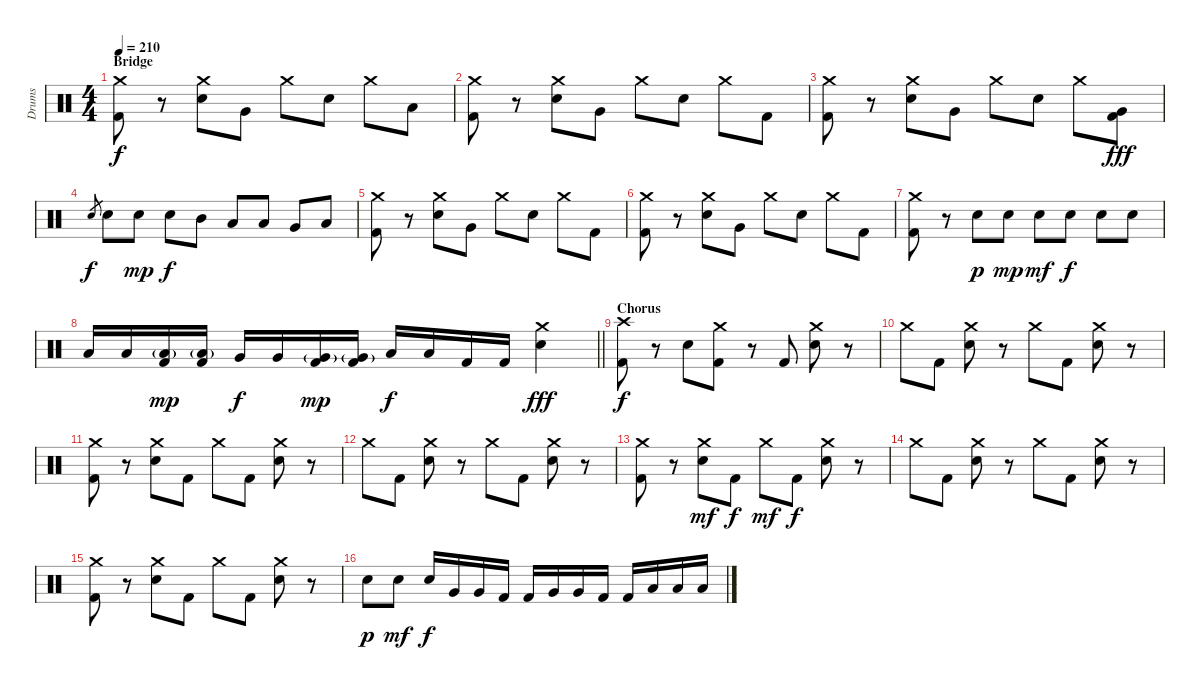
\track ("Drums" "Drums") {instrument percussion}
\staff {score}
\articulation defaults
\ts (4 4)
\section ("" "Bridge")
\tempo 210
\clef neutral
\ks c
("Crash medium (hit)" "Kick (hit) 2").8{dy f} r.8 ("Crash medium (hit)" "Electric Snare (hit)").8 "Very Low Tom (hit)".8 "Crash medium (hit)".8 "Electric Snare (hit)".8 "Crash medium (hit)".8 "Low Floor Tom (hit)".8 |
("Crash medium (hit)" "Kick (hit) 2").8 r.8 ("Crash medium (hit)" "Electric Snare (hit)").8 "Very Low Tom (hit)".8 "Crash medium (hit)".8 "Electric Snare (hit)".8 "Crash medium (hit)".8 "Kick (hit) 2".8 |
("Crash medium (hit)" "Kick (hit) 2").8 r.8 ("Crash medium (hit)" "Electric Snare (hit)").8 "Very Low Tom (hit)".8 "Crash medium (hit)".8 "Electric Snare (hit)".8 "Crash medium (hit)".8 ("Very Low Tom (hit)" "Kick (hit) 2").8{dy fff} |
"Electric Snare (hit)".8{gr dy f} "Electric Snare (hit)".8 "Electric Snare (hit)".8{dy mp} "Electric Snare (hit)".8{dy f} "Mid Tom (hit)".8 "Low Tom (hit)".8 "Low Tom (hit)".8 "Very Low Tom (hit)".8 "Low Floor Tom (hit)".8 |
("Crash medium (hit)" "Kick (hit) 2").8 r.8 ("Crash medium (hit)" "Electric Snare (hit)").8 "Very Low Tom (hit)".8 "Crash medium (hit)".8 "Electric Snare (hit)".8 "Crash medium (hit)".8 "Kick (hit) 2".8 |
("Crash medium (hit)" "Kick (hit) 2").8 r.8 ("Crash medium (hit)" "Electric Snare (hit)").8 "Very Low Tom (hit)".8 "Crash medium (hit)".8 "Electric Snare (hit)".8 "Crash medium (hit)".8 "Kick (hit) 2".8 |
("Crash medium (hit)" "Kick (hit) 2").8 r.8 "Electric Snare (hit)".8{dy p} "Electric Snare (hit)".8{dy mp} "Electric Snare (hit)".8{dy mf} "Electric Snare (hit)".8{dy f} "Electric Snare (hit)".8 "Electric Snare (hit)".8 |
\barLineRight lightlight "Low Tom (hit)".16 "Low Tom (hit)".16
("Low Tom (hit)"{g} "Kick (hit) 2").16{dy mp} ("Low Tom (hit)"{g} "Kick (hit) 2").16 "Very Low Tom (hit)".16{dy f} "Very Low Tom (hit)".16 ("Very Low Tom (hit)"{g} "Kick (hit) 2").16{dy mp} ("Very Low Tom (hit)"{g} "Kick (hit) 2").16 "Low Floor Tom (hit)".16{dy f} "Low Floor Tom (hit)".16 "Kick (hit) 2".16 "Kick (hit) 2".16 ("Crash medium (hit)" "Electric Snare (hit)").4{dy fff} |
\section ("" "Chorus")
("Crash high (hit)" "Kick (hit) 2").8{dy f} r.8 "Electric Snare (hit)".8 ("Crash medium (hit)" "Kick (hit) 2").8 r.8 "Kick (hit) 2".8 ("Crash medium (hit)" "Electric Snare (hit)").8 r.8 |
"Crash medium (hit)".8 "Kick (hit) 2".8 ("Crash medium (hit)" "Electric Snare (hit)").8 r.8 "Crash medium (hit)".8 "Kick (hit) 2".8 ("Crash medium (hit)" "Electric Snare (hit)").8 r.8 |
("Crash medium (hit)" "Kick (hit) 2").8 r.8 ("Crash medium (hit)" "Electric Snare (hit)").8 "Kick (hit) 2".8 "Crash medium (hit)".8 "Kick (hit) 2".8 ("Crash medium (hit)" "Electric Snare (hit)").8 r.8 |
"Crash medium (hit)".8 "Kick (hit) 2".8 ("Crash medium (hit)" "Electric Snare (hit)").8 r.8 "Crash medium (hit)".8 "Kick (hit) 2".8 ("Crash medium (hit)" "Electric Snare (hit)").8 r.8 |
("Crash medium (hit)" "Kick (hit) 2").8 r.8 ("Crash medium (hit)" "Electric Snare (hit)").8{dy mf} "Kick (hit) 2".8{dy f} "Crash medium (hit)".8{dy mf} "Kick (hit) 2".8{dy f} ("Crash medium (hit)" "Electric Snare (hit)").8 r.8 |
"Crash medium (hit)".8 "Kick (hit) 2".8 ("Crash medium (hit)" "Electric Snare (hit)").8 r.8 "Crash medium (hit)".8 "Kick (hit) 2".8 ("Crash medium (hit)" "Electric Snare (hit)").8 r.8 |
("Crash medium (hit)" "Kick (hit) 2").8 r.8 ("Crash medium (hit)" "Electric Snare (hit)").8 "Kick (hit) 2".8 "Crash medium (hit)".8 "Kick (hit) 2".8 ("Crash medium (hit)" "Electric Snare (hit)").8 r.8 |
"Electric Snare (hit)".8{dy p} "Electric Snare (hit)".8{dy mf} "Electric Snare (hit)".16{dy f} "Very Low Tom (hit)".16 "Very Low Tom (hit)".16 "Kick (hit) 2".16 "Kick (hit) 2".16 "Very Low Tom (hit)".16 "Very Low Tom (hit)".16 "Kick (hit) 2".16 "Kick (hit) 2".16 "Low Tom (hit)".16 "Low Tom (hit)".16 "Low Tom (hit)".16
